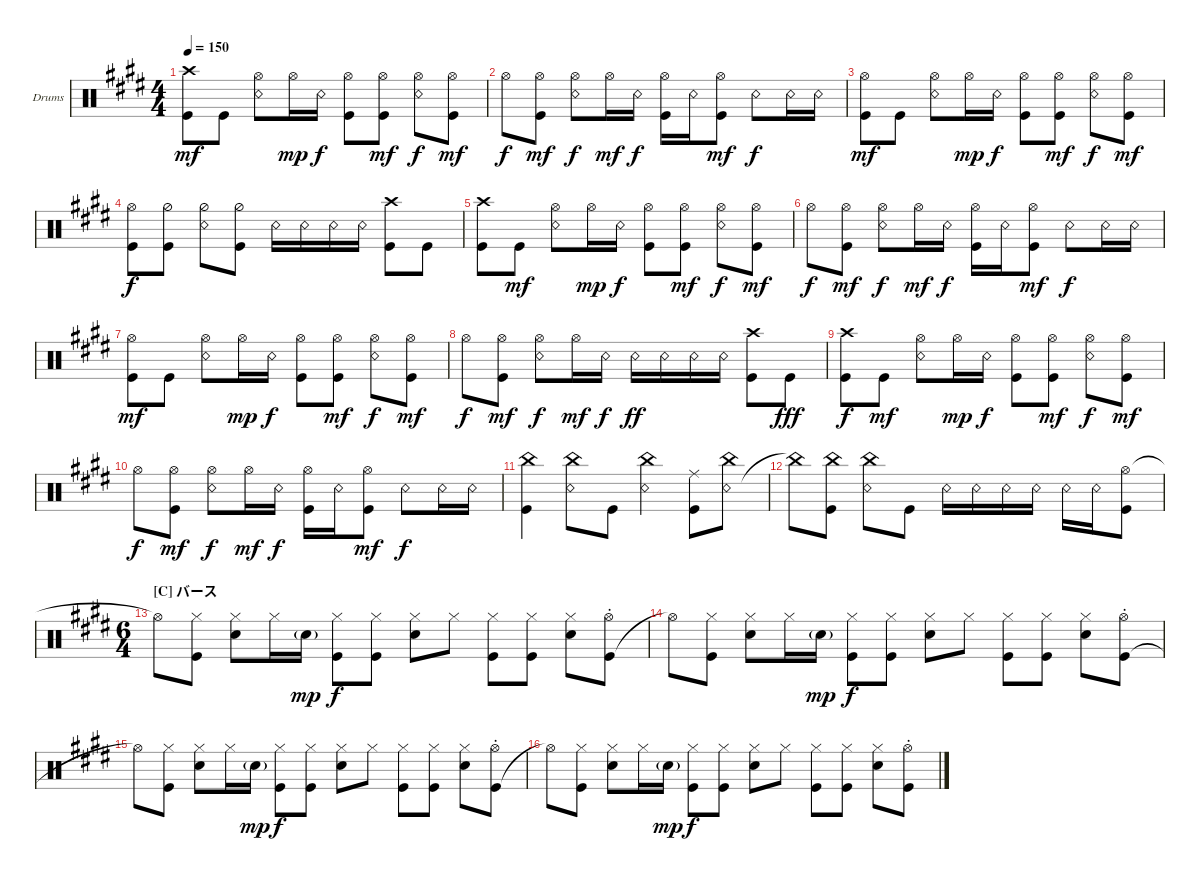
\bracketExtendMode groupsimilarinstruments
\firstSystemTrackNameOrientation horizontal
\otherSystemsTrackNameOrientation horizontal
\track ("Ichigo" "Drums") {instrument percussion}
\staff {score}
\articulation defaults
\ts (4 4)
\tempo 150
\clef neutral
\ks e
("Kick (hit)" "Crash high (hit)").8{dy mf} "Kick (hit)".8 ("Snare (rim shot)" "Hi-Hat (open)").8 "Hi-Hat (open)".16{dy mp} "Snare (rim shot)".16{dy f} ("Kick (hit)" "Hi-Hat (open)").8 ("Hi-Hat (open)" "Kick (hit)").8{dy mf} ("Hi-Hat (open)" "Snare (rim shot)").8{dy f} ("Hi-Hat (open)" "Kick (hit)").8{dy mf} |
"Hi-Hat (open)".8{dy f} ("Kick (hit)" "Hi-Hat (open)").8{dy mf} ("Snare (rim shot)" "Hi-Hat (open)").8{dy f} "Hi-Hat (open)".16{dy mf} "Snare (rim shot)".16{dy f} ("Kick (hit)" "Hi-Hat (open)").16 "Snare (rim shot)".16 ("Hi-Hat (open)" "Kick (hit)").8{dy mf} "Snare (rim shot)".8{dy f} "Snare (rim shot)".16 "Snare (rim shot)".16 |
("Kick (hit)" "Hi-Hat (open)").8{dy mf} "Kick (hit)".8 ("Snare (rim shot)" "Hi-Hat (open)").8 "Hi-Hat (open)".16{dy mp} "Snare (rim shot)".16{dy f} ("Kick (hit)" "Hi-Hat (open)").8 ("Hi-Hat (open)" "Kick (hit)").8{dy mf} ("Hi-Hat (open)" "Snare (rim shot)").8{dy f} ("Hi-Hat (open)" "Kick (hit)").8{dy mf} |
("Kick (hit)" "Hi-Hat (open)").8{dy f} ("Kick (hit)" "Hi-Hat (half)").8 ("Snare (rim shot)" "Hi-Hat (half)").8 ("Kick (hit)" "Hi-Hat (half)").8 "Snare (rim shot)".16 "Snare (rim shot)".16 "Snare (rim shot)".16 "Snare (rim shot)".16 ("Kick (hit)" "Crash high (hit)").8 "Kick (hit)".8 |
("Kick (hit)" "Crash high (hit)").8 "Kick (hit)".8{dy mf} ("Snare (rim shot)" "Hi-Hat (open)").8 "Hi-Hat (open)".16{dy mp} "Snare (rim shot)".16{dy f} ("Kick (hit)" "Hi-Hat (open)").8 ("Hi-Hat (open)" "Kick (hit)").8{dy mf} ("Hi-Hat (open)" "Snare (rim shot)").8{dy f} ("Hi-Hat (open)" "Kick (hit)").8{dy mf} |
"Hi-Hat (open)".8{dy f} ("Kick (hit)" "Hi-Hat (open)").8{dy mf} ("Snare (rim shot)" "Hi-Hat (open)").8{dy f} "Hi-Hat (open)".16{dy mf} "Snare (rim shot)".16{dy f} ("Kick (hit)" "Hi-Hat (open)").16 "Snare (rim shot)".16 ("Hi-Hat (open)" "Kick (hit)").8{dy mf} "Snare (rim shot)".8{dy f} "Snare (rim shot)".16 "Snare (rim shot)".16 |
("Kick (hit)" "Hi-Hat (open)").8{dy mf} "Kick (hit)".8 ("Snare (rim shot)" "Hi-Hat (open)").8 "Hi-Hat (open)".16{dy mp} "Snare (rim shot)".16{dy f} ("Kick (hit)" "Hi-Hat (open)").8 ("Hi-Hat (open)" "Kick (hit)").8{dy mf} ("Hi-Hat (open)" "Snare (rim shot)").8{dy f} ("Hi-Hat (open)" "Kick (hit)").8{dy mf} |
"Hi-Hat (open)".8{dy f} ("Kick (hit)" "Hi-Hat (open)").8{dy mf} ("Snare (rim shot)" "Hi-Hat (open)").8{dy f} "Hi-Hat (open)".16{dy mf} "Snare (rim shot)".16{dy f} "Snare (rim shot)".16{dy ff} "Snare (rim shot)".16 "Snare (rim shot)".16 "Snare (rim shot)".16 ("Kick (hit)" "Crash high (hit)").8 "Kick (hit)".8{dy fff} |
("Kick (hit)" "Crash high (hit)").8{dy f} "Kick (hit)".8{dy mf} ("Snare (rim shot)" "Hi-Hat (open)").8 "Hi-Hat (open)".16{dy mp} "Snare (rim shot)".16{dy f} ("Kick (hit)" "Hi-Hat (open)").8 ("Hi-Hat (open)" "Kick (hit)").8{dy mf} ("Hi-Hat (open)" "Snare (rim shot)").8{dy f} ("Hi-Hat (open)" "Kick (hit)").8{dy mf} |
"Hi-Hat (open)".8{dy f} ("Kick (hit)" "Hi-Hat (open)").8{dy mf} ("Snare (rim shot)" "Hi-Hat (open)").8{dy f} "Hi-Hat (open)".16{dy mf} "Snare (rim shot)".16{dy f} ("Kick (hit)" "Hi-Hat (open)").16 "Snare (rim shot)".16 ("Hi-Hat (open)" "Kick (hit)").8{dy mf} "Snare (rim shot)".8{dy f} "Snare (rim shot)".16 "Snare (rim shot)".16 |
("China (hit)" "Kick (hit)").4 ("Snare (rim shot)" "China (hit)").8 "Kick (hit)".8 ("Snare (rim shot)" "China (hit)").4 ("Kick (hit)" "Ride (middle)").8 ("Snare (rim shot)" "China (hit)").8 |
"China (hit)"{t}.8 ("Kick (hit)" "China (hit)").8 ("Snare (rim shot)" "China (hit)").8 "Kick (hit)".8 "Snare (rim shot)".16 "Snare (rim shot)".16 "Snare (rim shot)".16 "Snare (rim shot)".16 "Snare (rim shot)".16 "Snare (rim shot)".16 ("Hi-Hat (open)" "Kick (hit)").8 |
\ts (6 4)
\section ("C" "バース")
"Hi-Hat (open)"{t}.8 ("Hi-Hat (closed)" "Kick (hit)").8 ("Hi-Hat (closed)" "Snare (hit) 2").8 "Hi-Hat (closed)".16 "Snare (hit) 2"{g}.16{dy mp} ("Hi-Hat (closed)" "Kick (hit)").8{dy f} ("Hi-Hat (closed)" "Kick (hit)").8 ("Hi-Hat (closed)" "Snare (hit) 2").8 "Hi-Hat (closed)".8 ("Hi-Hat (closed)" "Kick (hit)").8 ("Hi-Hat (closed)" "Kick (hit)").8 ("Snare (hit) 2" "Hi-Hat (closed)").8 ("Kick (hit)"{st} "Hi-Hat (open)"{st}).8 |
"Hi-Hat (open)"{t}.8 ("Hi-Hat (closed)" "Kick (hit)").8 ("Hi-Hat (closed)" "Snare (hit) 2").8 "Hi-Hat (closed)".16 "Snare (hit) 2"{g}.16{dy mp} ("Hi-Hat (closed)" "Kick (hit)").8{dy f} ("Hi-Hat (closed)" "Kick (hit)").8 ("Hi-Hat (closed)" "Snare (hit) 2").8 "Hi-Hat (closed)".8 ("Hi-Hat (closed)" "Kick (hit)").8 ("Hi-Hat (closed)" "Kick (hit)").8 ("Snare (hit) 2" "Hi-Hat (closed)").8 ("Kick (hit)"{st} "Hi-Hat (open)"{st}).8 |
"Hi-Hat (open)"{t}.8 ("Hi-Hat (closed)" "Kick (hit)").8 ("Hi-Hat (closed)" "Snare (hit) 2").8 "Hi-Hat (closed)".16 "Snare (hit) 2"{g}.16{dy mp} ("Hi-Hat (closed)" "Kick (hit)").8{dy f} ("Hi-Hat (closed)" "Kick (hit)").8 ("Hi-Hat (closed)" "Snare (hit) 2").8 "Hi-Hat (closed)".8 ("Hi-Hat (closed)" "Kick (hit)").8 ("Hi-Hat (closed)" "Kick (hit)").8 ("Snare (hit) 2" "Hi-Hat (closed)").8 ("Kick (hit)"{st} "Hi-Hat (open)"{st}).8 |
"Hi-Hat (open)"{t}.8 ("Hi-Hat (closed)" "Kick (hit)").8 ("Hi-Hat (closed)" "Snare (hit) 2").8 "Hi-Hat (closed)".16 "Snare (hit) 2"{g}.16{dy mp} ("Hi-Hat (closed)" "Kick (hit)").8{dy f} ("Hi-Hat (closed)" "Kick (hit)").8 ("Hi-Hat (closed)" "Snare (hit) 2").8 "Hi-Hat (closed)".8 ("Hi-Hat (closed)" "Kick (hit)").8 ("Hi-Hat (closed)" "Kick (hit)").8 ("Snare (hit) 2" "Hi-Hat (closed)").8 ("Kick (hit)"{st} "Hi-Hat (open)"{st}).8
